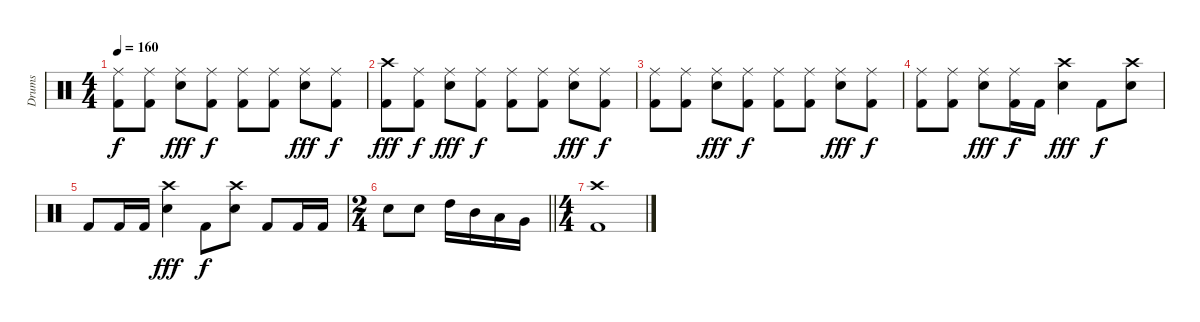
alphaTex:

\track ("Drums" "Drums") {instrument percussion}
\staff {score}
\articulation defaults
\ts (4 4)
\tempo 160
\clef neutral
\ks c
("Kick (hit) 2" "Ride (middle)").8{dy f} ("Kick (hit) 2" "Ride (middle)").8 ("Snare (hit) 2" "Ride (middle)").8{dy fff} ("Kick (hit) 2" "Ride (middle)").8{dy f} ("Kick (hit) 2" "Ride (middle)").8 ("Kick (hit) 2" "Ride (middle)").8 ("Snare (hit) 2" "Ride (middle)").8{dy fff} ("Kick (hit) 2" "Ride (middle)").8{dy f} |
("Kick (hit) 2" "Crash high (hit)").8{dy fff} ("Kick (hit) 2" "Ride (middle)").8{dy f} ("Snare (hit) 2" "Ride (middle)").8{dy fff} ("Kick (hit) 2" "Ride (middle)").8{dy f} ("Kick (hit) 2" "Ride (middle)").8 ("Kick (hit) 2" "Ride (middle)").8 ("Snare (hit) 2" "Ride (middle)").8{dy fff} ("Kick (hit) 2" "Ride (middle)").8{dy f} |
("Kick (hit) 2" "Ride (middle)").8 ("Kick (hit) 2" "Ride (middle)").8 ("Snare (hit) 2" "Ride (middle)").8{dy fff} ("Kick (hit) 2" "Ride (middle)").8{dy f} ("Kick (hit) 2" "Ride (middle)").8 ("Kick (hit) 2" "Ride (middle)").8 ("Snare (hit) 2" "Ride (middle)").8{dy fff} ("Kick (hit) 2" "Ride (middle)").8{dy f} |
("Kick (hit) 2" "Ride (middle)").8 ("Kick (hit) 2" "Ride (middle)").8 ("Snare (hit) 2" "Ride (middle)").8{dy fff} ("Kick (hit) 2" "Ride (middle)").16{dy f} "Kick (hit) 2".16 ("Snare (hit) 2" "Crash high (hit)").4{dy fff} "Kick (hit) 2".8{dy f} ("Snare (hit) 2" "Crash high (hit)").8 |
"Kick (hit) 2".8 "Kick (hit) 2".16 "Kick (hit) 2".16 ("Snare (hit) 2" "Crash high (hit)").4{dy fff} "Kick (hit) 2".8{dy f} ("Snare (hit) 2" "Crash high (hit)").8 "Kick (hit) 2".8 "Kick (hit) 2".16 "Kick (hit) 2".16 |
\ts (2 4)
\barLineRight lightlight "Snare (hit) 2".8 "Snare (hit) 2".8 "High Tom (hit)".16 "Mid Tom (hit)".16 "Low Tom (hit)".16 "Very Low Tom (hit)".16
|
\ts (4 4)
("Kick (hit) 2" "Crash high (hit)").1
